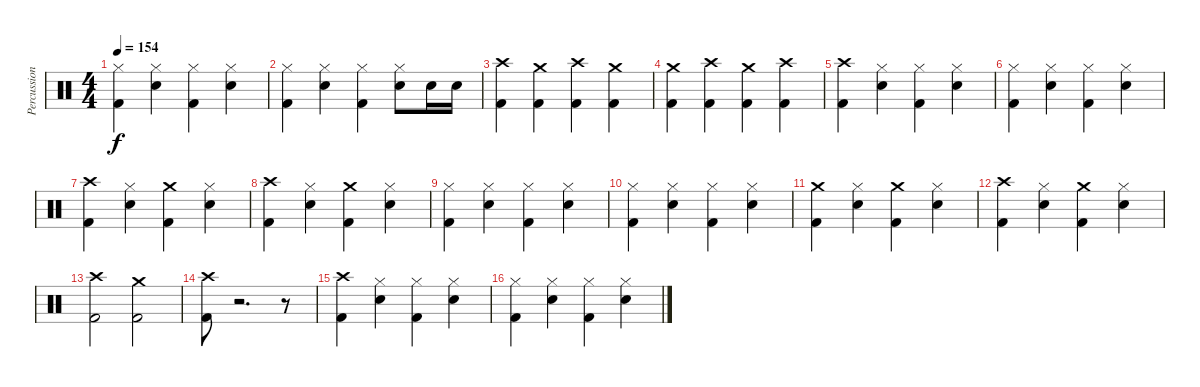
\track ("Percussion" "Percussion") {instrument percussion}
\staff {score}
\articulation defaults
\ts (4 4)
\tempo 154
\clef neutral
\ks c
("Hi-Hat (closed)" "Kick (hit) 2").4{dy f} ("Hi-Hat (closed)" "Snare (hit) 2").4 ("Hi-Hat (closed)" "Kick (hit) 2").4 ("Hi-Hat (closed)" "Snare (hit) 2").4 |
("Hi-Hat (closed)" "Kick (hit) 2").4 ("Hi-Hat (closed)" "Snare (hit) 2").4 ("Hi-Hat (closed)" "Kick (hit) 2").4 ("Hi-Hat (closed)" "Snare (hit) 2").8 "Snare (hit) 2".16 "Snare (hit) 2".16 |
("Crash high (hit)" "Kick (hit) 2").4 ("Crash medium (hit)" "Kick (hit) 2").4 ("Crash high (hit)" "Kick (hit) 2").4 ("Crash medium (hit)" "Kick (hit) 2").4 |
("Crash medium (hit)" "Kick (hit) 2").4 ("Crash high (hit)" "Kick (hit) 2").4 ("Crash medium (hit)" "Kick (hit) 2").4 ("Crash high (hit)" "Kick (hit) 2").4 |
("Crash high (hit)" "Kick (hit) 2").4 ("Hi-Hat (closed)" "Snare (hit) 2").4 ("Hi-Hat (closed)" "Kick (hit) 2").4 ("Hi-Hat (closed)" "Snare (hit) 2").4 |
("Hi-Hat (closed)" "Kick (hit) 2").4 ("Hi-Hat (closed)" "Snare (hit) 2").4 ("Hi-Hat (closed)" "Kick (hit) 2").4 ("Hi-Hat (closed)" "Snare (hit) 2").4 |
("Crash high (hit)" "Kick (hit) 2").4 ("Hi-Hat (closed)" "Snare (hit) 2").4 ("Crash medium (hit)" "Kick (hit) 2").4 ("Hi-Hat (closed)" "Snare (hit) 2").4 |
("Crash high (hit)" "Kick (hit) 2").4 ("Hi-Hat (closed)" "Snare (hit) 2").4 ("Crash medium (hit)" "Kick (hit) 2").4 ("Hi-Hat (closed)" "Snare (hit) 2").4 |
("Hi-Hat (closed)" "Kick (hit) 2").4 ("Hi-Hat (closed)" "Snare (hit) 2").4 ("Hi-Hat (closed)" "Kick (hit) 2").4 ("Hi-Hat (closed)" "Snare (hit) 2").4 |
("Hi-Hat (closed)" "Kick (hit) 2").4 ("Hi-Hat (closed)" "Snare (hit) 2").4 ("Hi-Hat (closed)" "Kick (hit) 2").4 ("Hi-Hat (closed)" "Snare (hit) 2").4 |
("Crash medium (hit)" "Kick (hit) 2").4 ("Hi-Hat (closed)" "Snare (hit) 2").4 ("Crash medium (hit)" "Kick (hit) 2").4 ("Hi-Hat (closed)" "Snare (hit) 2").4 |
("Crash high (hit)" "Kick (hit) 2").4 ("Hi-Hat (closed)" "Snare (hit) 2").4 ("Crash medium (hit)" "Kick (hit) 2").4 ("Hi-Hat (closed)" "Snare (hit) 2").4 |
("Crash high (hit)" "Kick (hit) 2").2 ("Crash medium (hit)" "Kick (hit) 2").2 |
("Crash high (hit)" "Kick (hit) 2").8 r.2{d} r.8 |
("Crash high (hit)" "Kick (hit) 2").4 ("Hi-Hat (closed)" "Snare (hit) 2").4 ("Hi-Hat (closed)" "Kick (hit) 2").4 ("Hi-Hat (closed)" "Snare (hit) 2").4 |
("Hi-Hat (closed)" "Kick (hit) 2").4 ("Hi-Hat (closed)" "Snare (hit) 2").4 ("Hi-Hat (closed)" "Kick (hit) 2").4 ("Hi-Hat (closed)" "Snare (hit) 2").4
